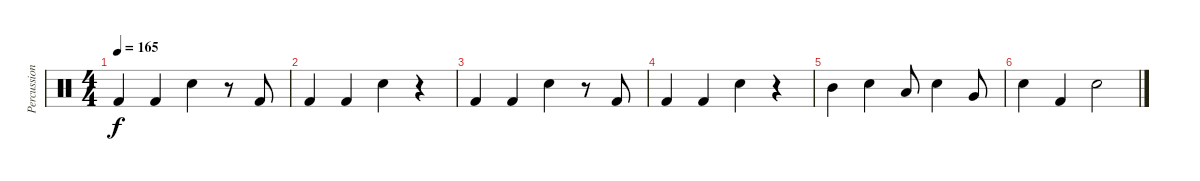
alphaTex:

\track ("Percussion" "Percussion") {instrument percussion}
\staff {score}
\articulation defaults
\ts (4 4)
\tempo 165
\clef neutral
\ks c "Kick (hit) 2".4{dy f} "Kick (hit) 2".4 "Electric Snare (hit)".4
r.8 "Kick (hit) 2".8 |
"Kick (hit) 2".4 "Kick (hit) 2".4 "Electric Snare (hit)".4 r.4 |
"Kick (hit) 2".4 "Kick (hit) 2".4 "Electric Snare (hit)".4 r.8 "Kick (hit) 2".8 |
"Kick (hit) 2".4 "Kick (hit) 2".4 "Electric Snare (hit)".4 r.4 |
"Mid Tom (hit)".4 "Electric Snare (hit)".4 "Low Tom (hit)".8 "Electric Snare (hit)".4 "Very Low Tom (hit)".8 |
"Electric Snare (hit)".4 "Kick (hit) 2".4 "Electric Snare (hit)".2
